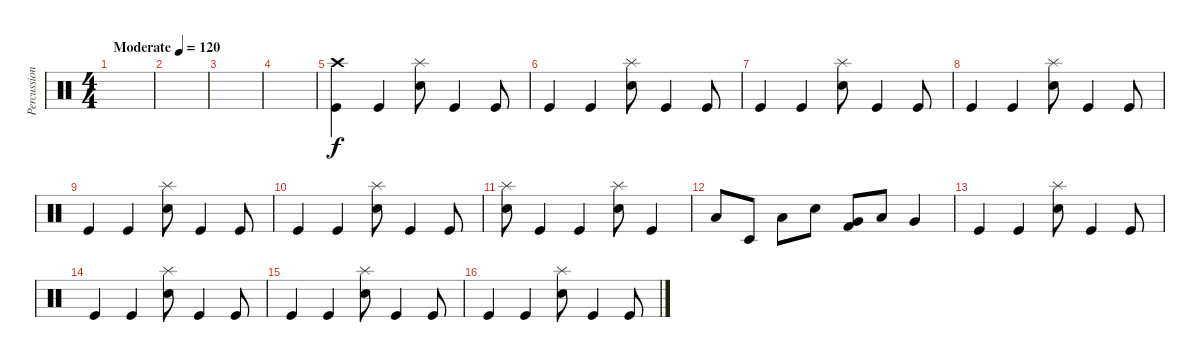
\track ("Percussion" "Percussion") {instrument percussion}
\staff {score}
\articulation defaults
\ts (4 4)
\tempo (120 "Moderate")
\clef neutral
\ks c
|
|
|
|
("Kick (hit)" "Crash high (hit)").4 "Kick (hit)".4 ("Snare (hit) 2" "Splash (hit)").8 "Kick (hit)".4 "Kick (hit)".8 |
"Kick (hit)".4 "Kick (hit)".4 ("Snare (hit) 2" "Splash (hit)").8 "Kick (hit)".4 "Kick (hit)".8 |
"Kick (hit)".4 "Kick (hit)".4 ("Snare (hit) 2" "Splash (hit)").8 "Kick (hit)".4 "Kick (hit)".8 |
"Kick (hit)".4 "Kick (hit)".4 ("Snare (hit) 2" "Splash (hit)").8 "Kick (hit)".4 "Kick (hit)".8 |
"Kick (hit)".4 "Kick (hit)".4 ("Snare (hit) 2" "Splash (hit)").8 "Kick (hit)".4 "Kick (hit)".8 |
"Kick (hit)".4 "Kick (hit)".4 ("Snare (hit) 2" "Splash (hit)").8 "Kick (hit)".4 "Kick (hit)".8 |
("Snare (hit) 2" "Splash (hit)").8 "Kick (hit)".4 "Kick (hit)".4 ("Snare (hit) 2" "Splash (hit)").8 "Kick (hit)".4 |
"Low Floor Tom (hit)".8 "Timbale low (hit)".8 "Low Floor Tom (hit)".8 "Electric Snare (hit)".8 ("Kick (hit) 2" "Very Low Tom (hit)").8 "Low Floor Tom (hit)".8 "Very Low Tom (hit)".4 |
"Kick (hit)".4 "Kick (hit)".4 ("Snare (hit) 2" "Splash (hit)").8 "Kick (hit)".4 "Kick (hit)".8 |
"Kick (hit)".4 "Kick (hit)".4 ("Snare (hit) 2" "Splash (hit)").8 "Kick (hit)".4 "Kick (hit)".8 |
"Kick (hit)".4 "Kick (hit)".4 ("Snare (hit) 2" "Splash (hit)").8 "Kick (hit)".4 "Kick (hit)".8 |
"Kick (hit)".4 "Kick (hit)".4 ("Snare (hit) 2" "Splash (hit)").8 "Kick (hit)".4 "Kick (hit)".8
